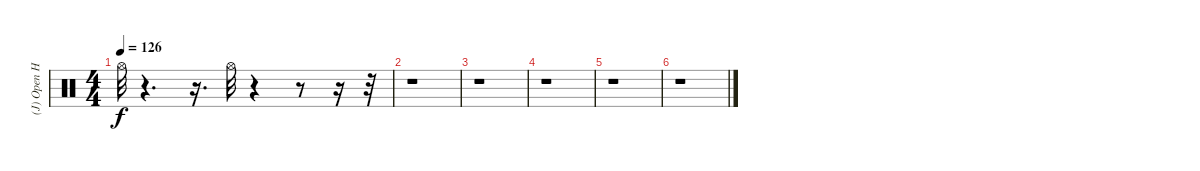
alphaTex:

\track ("(J) Open Hi Hat" "(J) Open H") {instrument percussion}
\staff {score}
\articulation defaults
\ts (4 4)
\tempo 126
\clef neutral
\ks c "Hi-Hat (open)".32{dy f}
r.4{d} r.16{d} "Hi-Hat (open)".32 r.4 r.8 r.16 r.32 |
r.1 |
r.1 |
r.1 |
r.1 |
r.1
